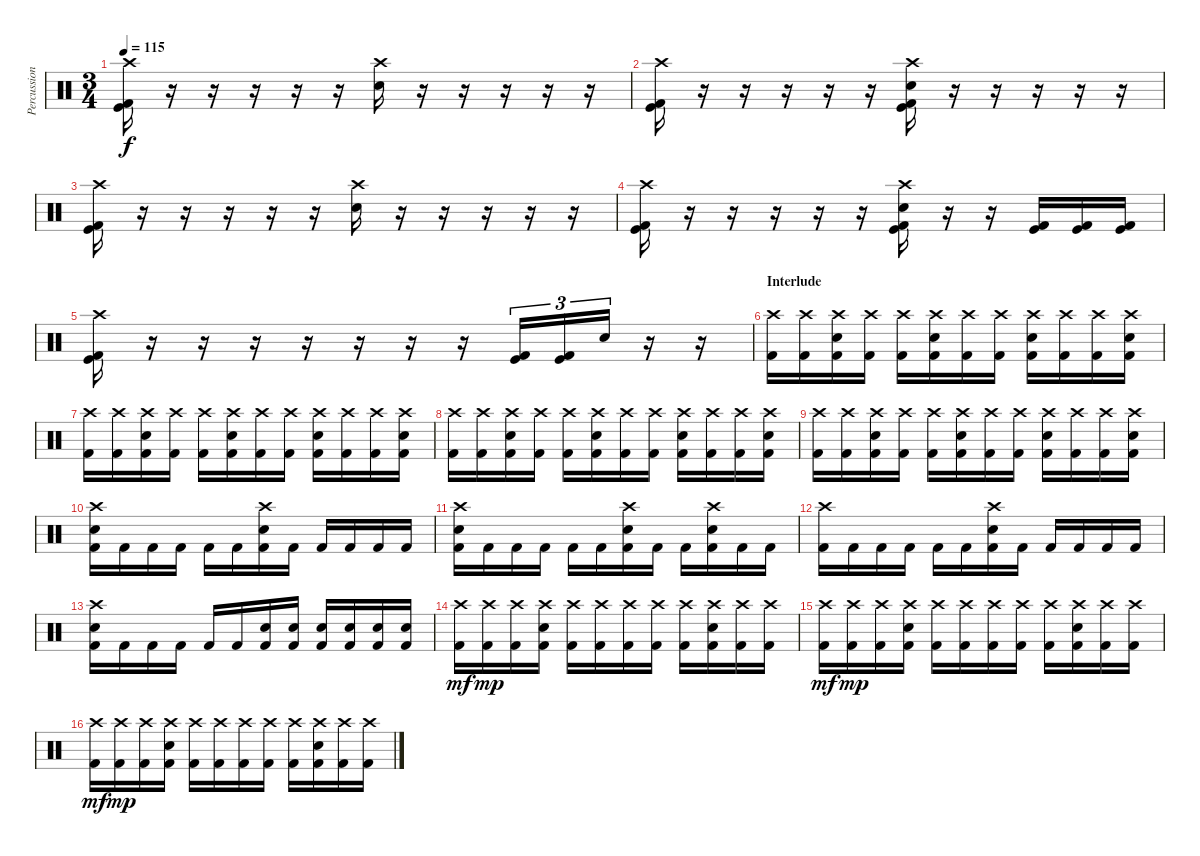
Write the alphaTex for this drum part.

\track ("Percussion" "Percussion") {instrument percussion}
\staff {score}
\articulation defaults
\ts (3 4)
\tempo 115
\clef neutral
\ks c
("Crash high (hit)" "Kick (hit)" "Kick (hit) 2").16{dy f} r.16 r.16 r.16 r.16 r.16 ("Crash high (hit)" "Electric Snare (hit)").16 r.16 r.16 r.16 r.16 r.16 |
("Crash high (hit)" "Kick (hit)" "Kick (hit) 2").16 r.16 r.16 r.16 r.16 r.16 ("Crash high (hit)" "Electric Snare (hit)" "Kick (hit)" "Kick (hit) 2").16 r.16 r.16 r.16 r.16 r.16 |
("Crash high (hit)" "Kick (hit)" "Kick (hit) 2").16 r.16 r.16 r.16 r.16 r.16 ("Crash high (hit)" "Electric Snare (hit)").16 r.16 r.16 r.16 r.16 r.16 |
("Crash high (hit)" "Kick (hit)" "Kick (hit) 2").16 r.16 r.16 r.16 r.16 r.16 ("Crash high (hit)" "Electric Snare (hit)" "Kick (hit)" "Kick (hit) 2").16 r.16 r.16 ("Kick (hit)" "Kick (hit) 2").16 ("Kick (hit)" "Kick (hit) 2").16 ("Kick (hit)" "Kick (hit) 2").16 |
("Crash high (hit)" "Kick (hit)" "Kick (hit) 2").16 r.16 r.16 r.16 r.16 r.16 r.16 r.16 ("Kick (hit) 2" "Kick (hit)").16{tu (3 2)} ("Kick (hit) 2" "Kick (hit)").16{tu (3 2)} "Electric Snare (hit)".16{tu (3 2)} r.16 r.16 |
\section ("" "Interlude")
("Crash high (hit)" "Kick (hit) 2").16 ("Crash high (hit)" "Kick (hit) 2").16 ("Crash high (hit)" "Electric Snare (hit)" "Kick (hit) 2").16 ("Crash high (hit)" "Kick (hit) 2").16 ("Crash high (hit)" "Kick (hit) 2").16 ("Crash high (hit)" "Electric Snare (hit)" "Kick (hit) 2").16 ("Crash high (hit)" "Kick (hit) 2").16 ("Crash high (hit)" "Kick (hit) 2").16 ("Crash high (hit)" "Electric Snare (hit)" "Kick (hit) 2").16 ("Crash high (hit)" "Kick (hit) 2").16 ("Crash high (hit)" "Kick (hit) 2").16 ("Crash high (hit)" "Electric Snare (hit)" "Kick (hit) 2").16 |
("Crash high (hit)" "Kick (hit) 2").16 ("Crash high (hit)" "Kick (hit) 2").16 ("Crash high (hit)" "Electric Snare (hit)" "Kick (hit) 2").16 ("Crash high (hit)" "Kick (hit) 2").16 ("Crash high (hit)" "Kick (hit) 2").16 ("Crash high (hit)" "Electric Snare (hit)" "Kick (hit) 2").16 ("Crash high (hit)" "Kick (hit) 2").16 ("Crash high (hit)" "Kick (hit) 2").16 ("Crash high (hit)" "Electric Snare (hit)" "Kick (hit) 2").16 ("Crash high (hit)" "Kick (hit) 2").16 ("Crash high (hit)" "Kick (hit) 2").16 ("Crash high (hit)" "Electric Snare (hit)" "Kick (hit) 2").16 |
("Crash high (hit)" "Kick (hit) 2").16 ("Crash high (hit)" "Kick (hit) 2").16 ("Crash high (hit)" "Electric Snare (hit)" "Kick (hit) 2").16 ("Crash high (hit)" "Kick (hit) 2").16 ("Crash high (hit)" "Kick (hit) 2").16 ("Crash high (hit)" "Electric Snare (hit)" "Kick (hit) 2").16 ("Crash high (hit)" "Kick (hit) 2").16 ("Crash high (hit)" "Kick (hit) 2").16 ("Crash high (hit)" "Electric Snare (hit)" "Kick (hit) 2").16 ("Crash high (hit)" "Kick (hit) 2").16 ("Crash high (hit)" "Kick (hit) 2").16 ("Crash high (hit)" "Electric Snare (hit)" "Kick (hit) 2").16 |
("Crash high (hit)" "Kick (hit) 2").16 ("Crash high (hit)" "Kick (hit) 2").16 ("Crash high (hit)" "Electric Snare (hit)" "Kick (hit) 2").16 ("Crash high (hit)" "Kick (hit) 2").16 ("Crash high (hit)" "Kick (hit) 2").16 ("Crash high (hit)" "Electric Snare (hit)" "Kick (hit) 2").16 ("Crash high (hit)" "Kick (hit) 2").16 ("Crash high (hit)" "Kick (hit) 2").16 ("Crash high (hit)" "Electric Snare (hit)" "Kick (hit) 2").16 ("Crash high (hit)" "Kick (hit) 2").16 ("Crash high (hit)" "Kick (hit) 2").16 ("Crash high (hit)" "Electric Snare (hit)" "Kick (hit) 2").16 |
("Crash high (hit)" "Electric Snare (hit)" "Kick (hit) 2").16 "Kick (hit) 2".16 "Kick (hit) 2".16 "Kick (hit) 2".16 "Kick (hit) 2".16 "Kick (hit) 2".16 ("Crash high (hit)" "Electric Snare (hit)" "Kick (hit) 2").16 "Kick (hit) 2".16 "Kick (hit) 2".16 "Kick (hit) 2".16 "Kick (hit) 2".16 "Kick (hit) 2".16 |
("Crash high (hit)" "Electric Snare (hit)" "Kick (hit) 2").16 "Kick (hit) 2".16 "Kick (hit) 2".16 "Kick (hit) 2".16 "Kick (hit) 2".16 "Kick (hit) 2".16 ("Crash high (hit)" "Electric Snare (hit)" "Kick (hit) 2").16 "Kick (hit) 2".16 "Kick (hit) 2".16 ("Crash high (hit)" "Electric Snare (hit)" "Kick (hit) 2").16 "Kick (hit) 2".16 "Kick (hit) 2".16 |
("Crash high (hit)" "Kick (hit) 2").16 "Kick (hit) 2".16 "Kick (hit) 2".16 "Kick (hit) 2".16 "Kick (hit) 2".16 "Kick (hit) 2".16 ("Crash high (hit)" "Electric Snare (hit)" "Kick (hit) 2").16 "Kick (hit) 2".16 "Kick (hit) 2".16 "Kick (hit) 2".16 "Kick (hit) 2".16 "Kick (hit) 2".16 |
("Crash high (hit)" "Electric Snare (hit)" "Kick (hit) 2").16 "Kick (hit) 2".16 "Kick (hit) 2".16 "Kick (hit) 2".16 "Kick (hit) 2".16 "Kick (hit) 2".16 ("Electric Snare (hit)" "Kick (hit) 2").16 ("Electric Snare (hit)" "Kick (hit) 2").16 ("Electric Snare (hit)" "Kick (hit) 2").16 ("Electric Snare (hit)" "Kick (hit) 2").16 ("Electric Snare (hit)" "Kick (hit) 2").16 ("Electric Snare (hit)" "Kick (hit) 2").16 |
("Crash high (hit)" "Kick (hit) 2").16{dy mf} ("Crash high (hit)" "Kick (hit) 2").16{dy mp} ("Crash high (hit)" "Kick (hit) 2").16 ("Crash high (hit)" "Electric Snare (hit)" "Kick (hit) 2").16 ("Crash high (hit)" "Kick (hit) 2").16 ("Crash high (hit)" "Kick (hit) 2").16 ("Crash high (hit)" "Kick (hit) 2").16 ("Crash high (hit)" "Kick (hit) 2").16 ("Crash high (hit)" "Kick (hit) 2").16 ("Crash high (hit)" "Electric Snare (hit)" "Kick (hit) 2").16 ("Crash high (hit)" "Kick (hit) 2").16 ("Crash high (hit)" "Kick (hit) 2").16 |
("Crash high (hit)" "Kick (hit) 2").16{dy mf} ("Crash high (hit)" "Kick (hit) 2").16{dy mp} ("Crash high (hit)" "Kick (hit) 2").16 ("Crash high (hit)" "Electric Snare (hit)" "Kick (hit) 2").16 ("Crash high (hit)" "Kick (hit) 2").16 ("Crash high (hit)" "Kick (hit) 2").16 ("Crash high (hit)" "Kick (hit) 2").16 ("Crash high (hit)" "Kick (hit) 2").16 ("Crash high (hit)" "Kick (hit) 2").16 ("Crash high (hit)" "Electric Snare (hit)" "Kick (hit) 2").16 ("Crash high (hit)" "Kick (hit) 2").16 ("Crash high (hit)" "Kick (hit) 2").16 |
("Crash high (hit)" "Kick (hit) 2").16{dy mf} ("Crash high (hit)" "Kick (hit) 2").16{dy mp} ("Crash high (hit)" "Kick (hit) 2").16 ("Crash high (hit)" "Electric Snare (hit)" "Kick (hit) 2").16 ("Crash high (hit)" "Kick (hit) 2").16 ("Crash high (hit)" "Kick (hit) 2").16 ("Crash high (hit)" "Kick (hit) 2").16 ("Crash high (hit)" "Kick (hit) 2").16 ("Crash high (hit)" "Kick (hit) 2").16 ("Crash high (hit)" "Electric Snare (hit)" "Kick (hit) 2").16 ("Crash high (hit)" "Kick (hit) 2").16 ("Crash high (hit)" "Kick (hit) 2").16
